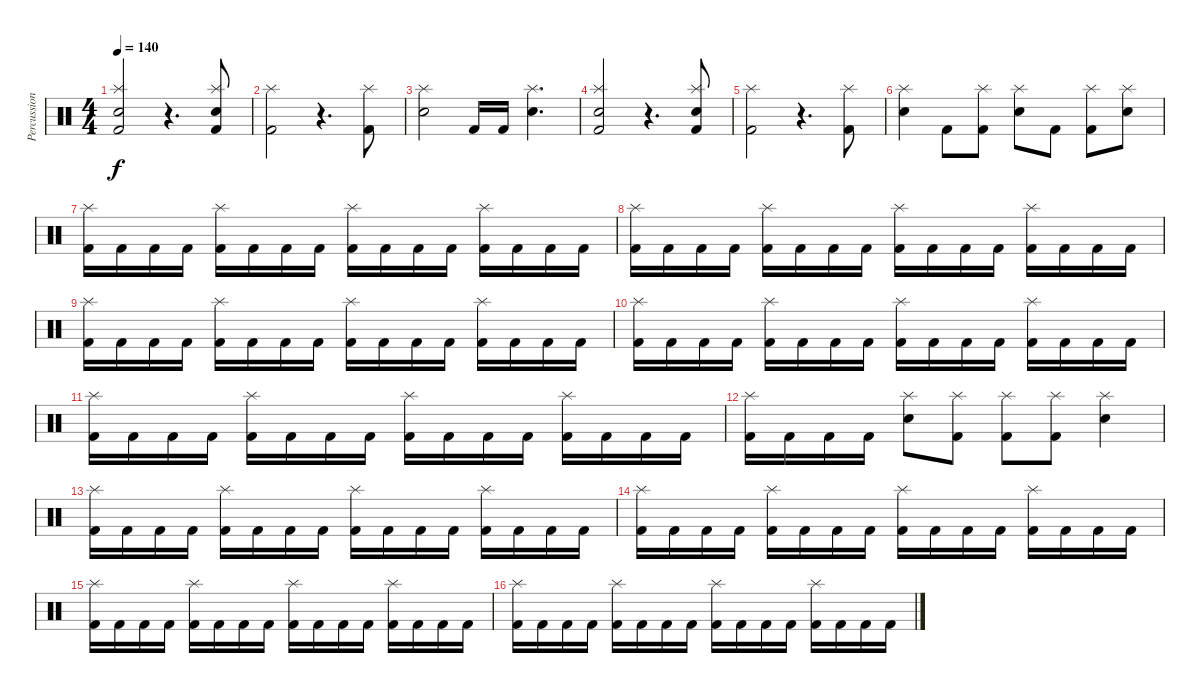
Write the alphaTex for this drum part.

\track ("Percussions" "Percussion") {instrument percussion}
\staff {score}
\articulation defaults
\ts (4 4)
\tempo 140
\clef neutral
\ks c
("Kick (hit) 2" "Splash (hit)" "Electric Snare (hit)").2{dy f} r.4{d} ("Kick (hit) 2" "Splash (hit)" "Electric Snare (hit)").8 |
("Splash (hit)" "Kick (hit) 2").2 r.4{d} ("Splash (hit)" "Kick (hit) 2").8 |
("Splash (hit)" "Electric Snare (hit)").2 "Kick (hit) 2".16 "Kick (hit) 2".16 ("Splash (hit)" "Electric Snare (hit)").4{d} |
("Kick (hit) 2" "Splash (hit)" "Electric Snare (hit)").2 r.4{d} ("Kick (hit) 2" "Splash (hit)" "Electric Snare (hit)").8 |
("Splash (hit)" "Kick (hit) 2").2 r.4{d} ("Splash (hit)" "Kick (hit) 2").8 |
("Splash (hit)" "Electric Snare (hit)").4 "Kick (hit) 2".8 ("Splash (hit)" "Kick (hit) 2").8 ("Splash (hit)" "Electric Snare (hit)").8 "Kick (hit) 2".8 ("Splash (hit)" "Kick (hit) 2").8 ("Splash (hit)" "Electric Snare (hit)").8 |
("Splash (hit)" "Kick (hit) 2").16 "Kick (hit) 2".16 "Kick (hit) 2".16 "Kick (hit) 2".16 ("Splash (hit)" "Kick (hit) 2").16 "Kick (hit) 2".16 "Kick (hit) 2".16 "Kick (hit) 2".16 ("Splash (hit)" "Kick (hit) 2").16 "Kick (hit) 2".16 "Kick (hit) 2".16 "Kick (hit) 2".16 ("Splash (hit)" "Kick (hit) 2").16 "Kick (hit) 2".16 "Kick (hit) 2".16 "Kick (hit) 2".16 |
("Splash (hit)" "Kick (hit) 2").16 "Kick (hit) 2".16 "Kick (hit) 2".16 "Kick (hit) 2".16 ("Splash (hit)" "Kick (hit) 2").16 "Kick (hit) 2".16 "Kick (hit) 2".16 "Kick (hit) 2".16 ("Splash (hit)" "Kick (hit) 2").16 "Kick (hit) 2".16 "Kick (hit) 2".16 "Kick (hit) 2".16 ("Splash (hit)" "Kick (hit) 2").16 "Kick (hit) 2".16 "Kick (hit) 2".16 "Kick (hit) 2".16 |
("Splash (hit)" "Kick (hit) 2").16 "Kick (hit) 2".16 "Kick (hit) 2".16 "Kick (hit) 2".16 ("Splash (hit)" "Kick (hit) 2").16 "Kick (hit) 2".16 "Kick (hit) 2".16 "Kick (hit) 2".16 ("Splash (hit)" "Kick (hit) 2").16 "Kick (hit) 2".16 "Kick (hit) 2".16 "Kick (hit) 2".16 ("Splash (hit)" "Kick (hit) 2").16 "Kick (hit) 2".16 "Kick (hit) 2".16 "Kick (hit) 2".16 |
("Splash (hit)" "Kick (hit) 2").16 "Kick (hit) 2".16 "Kick (hit) 2".16 "Kick (hit) 2".16 ("Splash (hit)" "Kick (hit) 2").16 "Kick (hit) 2".16 "Kick (hit) 2".16 "Kick (hit) 2".16 ("Splash (hit)" "Kick (hit) 2").16 "Kick (hit) 2".16 "Kick (hit) 2".16 "Kick (hit) 2".16 ("Splash (hit)" "Kick (hit) 2").16 "Kick (hit) 2".16 "Kick (hit) 2".16 "Kick (hit) 2".16 |
("Splash (hit)" "Kick (hit) 2").16 "Kick (hit) 2".16 "Kick (hit) 2".16 "Kick (hit) 2".16 ("Splash (hit)" "Kick (hit) 2").16 "Kick (hit) 2".16 "Kick (hit) 2".16 "Kick (hit) 2".16 ("Splash (hit)" "Kick (hit) 2").16 "Kick (hit) 2".16 "Kick (hit) 2".16 "Kick (hit) 2".16 ("Splash (hit)" "Kick (hit) 2").16 "Kick (hit) 2".16 "Kick (hit) 2".16 "Kick (hit) 2".16 |
("Splash (hit)" "Kick (hit) 2").16 "Kick (hit) 2".16 "Kick (hit) 2".16 "Kick (hit) 2".16 ("Electric Snare (hit)" "Splash (hit)").8 ("Kick (hit) 2" "Splash (hit)").8 ("Kick (hit) 2" "Splash (hit)").8 ("Kick (hit) 2" "Splash (hit)").8 ("Electric Snare (hit)" "Splash (hit)").4 |
("Splash (hit)" "Kick (hit) 2").16 "Kick (hit) 2".16 "Kick (hit) 2".16 "Kick (hit) 2".16 ("Splash (hit)" "Kick (hit) 2").16 "Kick (hit) 2".16 "Kick (hit) 2".16 "Kick (hit) 2".16 ("Splash (hit)" "Kick (hit) 2").16 "Kick (hit) 2".16 "Kick (hit) 2".16 "Kick (hit) 2".16 ("Splash (hit)" "Kick (hit) 2").16 "Kick (hit) 2".16 "Kick (hit) 2".16 "Kick (hit) 2".16 |
("Splash (hit)" "Kick (hit) 2").16 "Kick (hit) 2".16 "Kick (hit) 2".16 "Kick (hit) 2".16 ("Splash (hit)" "Kick (hit) 2").16 "Kick (hit) 2".16 "Kick (hit) 2".16 "Kick (hit) 2".16 ("Splash (hit)" "Kick (hit) 2").16 "Kick (hit) 2".16 "Kick (hit) 2".16 "Kick (hit) 2".16 ("Splash (hit)" "Kick (hit) 2").16 "Kick (hit) 2".16 "Kick (hit) 2".16 "Kick (hit) 2".16 |
("Splash (hit)" "Kick (hit) 2").16 "Kick (hit) 2".16 "Kick (hit) 2".16 "Kick (hit) 2".16 ("Splash (hit)" "Kick (hit) 2").16 "Kick (hit) 2".16 "Kick (hit) 2".16 "Kick (hit) 2".16 ("Splash (hit)" "Kick (hit) 2").16 "Kick (hit) 2".16 "Kick (hit) 2".16 "Kick (hit) 2".16 ("Splash (hit)" "Kick (hit) 2").16 "Kick (hit) 2".16 "Kick (hit) 2".16 "Kick (hit) 2".16 |
("Splash (hit)" "Kick (hit) 2").16 "Kick (hit) 2".16 "Kick (hit) 2".16 "Kick (hit) 2".16 ("Splash (hit)" "Kick (hit) 2").16 "Kick (hit) 2".16 "Kick (hit) 2".16 "Kick (hit) 2".16 ("Splash (hit)" "Kick (hit) 2").16 "Kick (hit) 2".16 "Kick (hit) 2".16 "Kick (hit) 2".16 ("Splash (hit)" "Kick (hit) 2").16 "Kick (hit) 2".16 "Kick (hit) 2".16 "Kick (hit) 2".16
